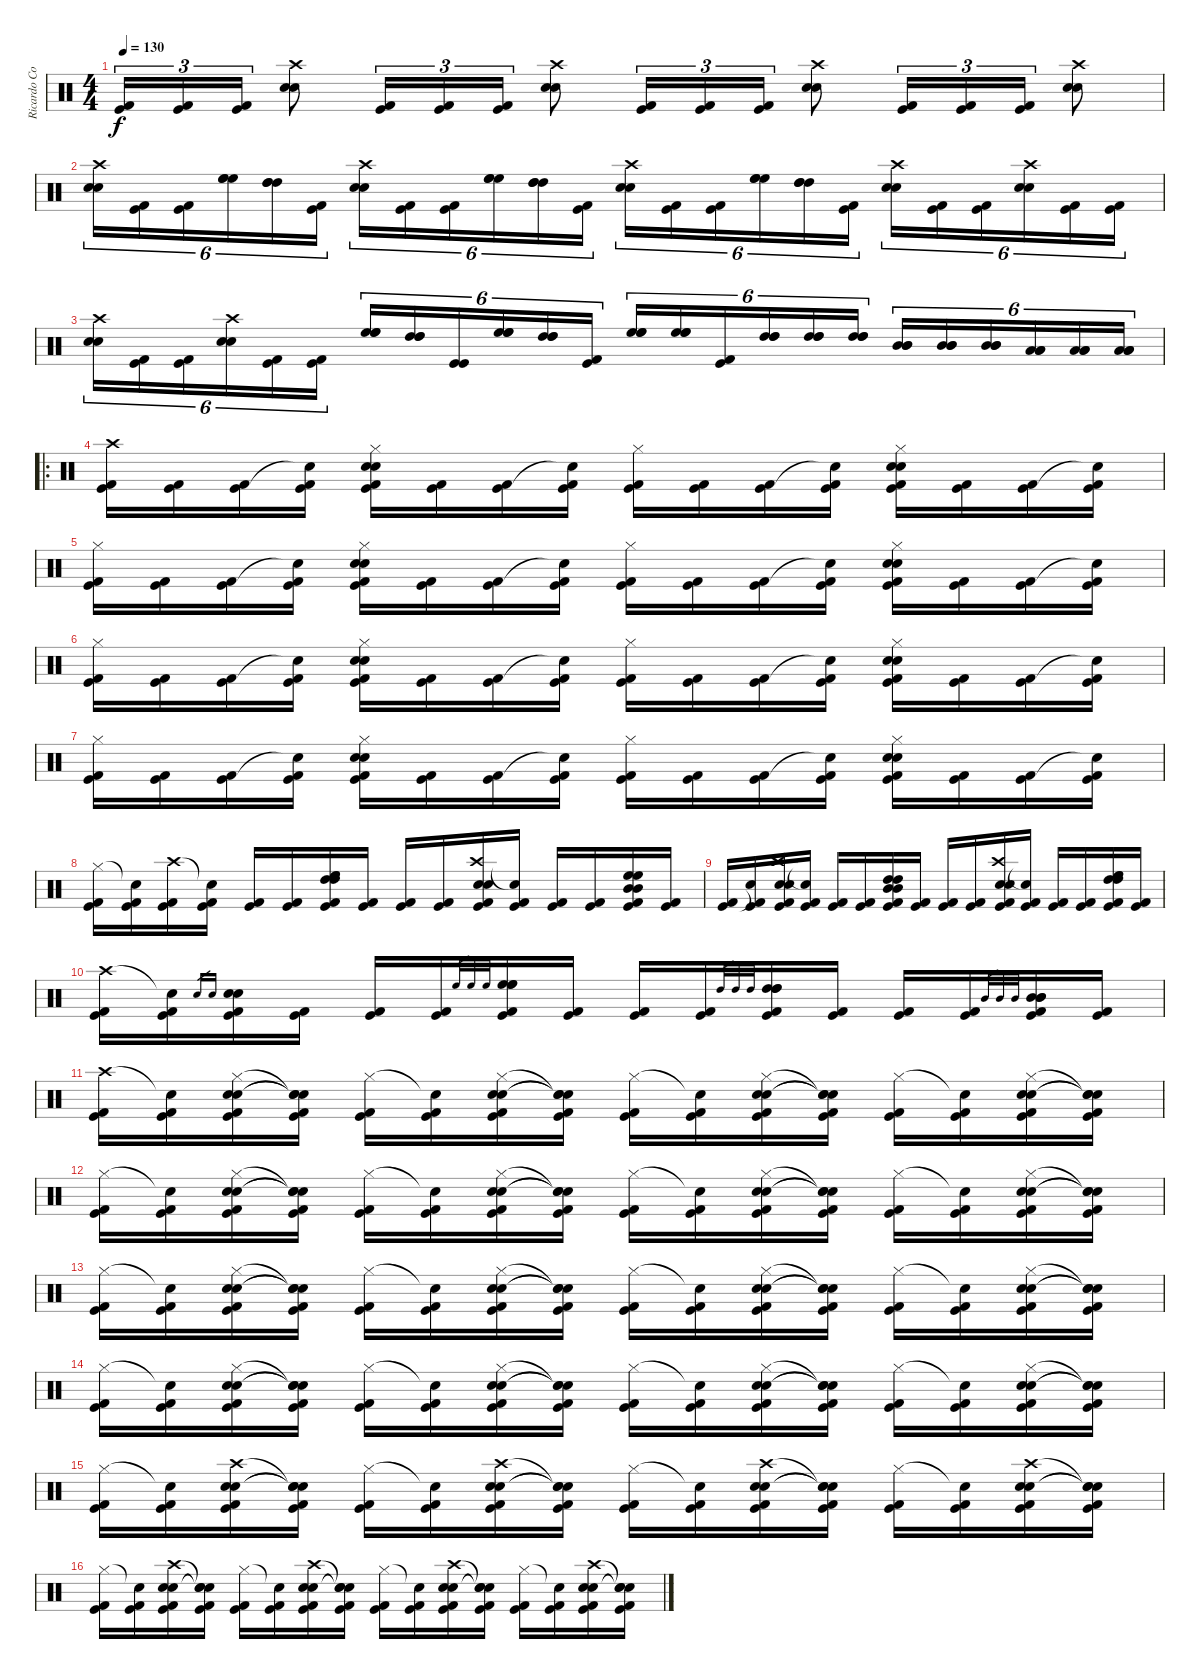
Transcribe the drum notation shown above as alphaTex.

\track ("Ricardo Confessori" "Ricardo Co") {instrument percussion}
\staff {score}
\articulation defaults
\ts (4 4)
\tempo 130
\clef neutral
\ks c
("Kick (hit) 2" "Kick (hit)").16{tu (3 2) dy f} ("Kick (hit) 2" "Kick (hit)").16{tu (3 2)} ("Kick (hit) 2" "Kick (hit)").16{tu (3 2)} ("Crash high (hit)" "Electric Snare (hit)" "Snare (hit) 2").8 ("Kick (hit)" "Kick (hit) 2").16{tu (3 2)} ("Kick (hit)" "Kick (hit) 2").16{tu (3 2)} ("Kick (hit)" "Kick (hit) 2").16{tu (3 2)} ("Crash high (hit)" "Electric Snare (hit)" "Snare (hit) 2").8 ("Kick (hit)" "Kick (hit) 2").16{tu (3 2)} ("Kick (hit)" "Kick (hit) 2").16{tu (3 2)} ("Kick (hit)" "Kick (hit) 2").16{tu (3 2)} ("Crash high (hit)" "Electric Snare (hit)" "Snare (hit) 2").8 ("Kick (hit)" "Kick (hit) 2").16{tu (3 2)} ("Kick (hit)" "Kick (hit) 2").16{tu (3 2)} ("Kick (hit)" "Kick (hit) 2").16{tu (3 2)} ("Crash high (hit)" "Electric Snare (hit)" "Snare (hit) 2").8 |
("Crash high (hit)" "Electric Snare (hit)" "Snare (hit) 2").16{tu (6 4)} ("Kick (hit)" "Kick (hit) 2").16{tu (6 4)} ("Kick (hit)" "Kick (hit) 2").16{tu (6 4)} ("High Floor Tom (hit)" "High Floor Tom (hit)" "High Floor Tom (hit)").16{tu (6 4)} ("High Tom (hit)" "High Tom (hit)" "High Tom (hit)").16{tu (6 4)} ("Kick (hit)" "Kick (hit) 2").16{tu (6 4)} ("Crash high (hit)" "Electric Snare (hit)" "Snare (hit) 2").16{tu (6 4)} ("Kick (hit)" "Kick (hit) 2").16{tu (6 4)} ("Kick (hit)" "Kick (hit) 2").16{tu (6 4)} ("High Floor Tom (hit)" "High Floor Tom (hit)" "High Floor Tom (hit)").16{tu (6 4)} ("High Tom (hit)" "High Tom (hit)" "High Tom (hit)").16{tu (6 4)} ("Kick (hit)" "Kick (hit) 2").16{tu (6 4)} ("Electric Snare (hit)" "Snare (hit) 2" "Crash high (hit)").16{tu (6 4)} ("Kick (hit)" "Kick (hit) 2").16{tu (6 4)} ("Kick (hit)" "Kick (hit) 2").16{tu (6 4)} ("High Floor Tom (hit)" "High Floor Tom (hit)" "High Floor Tom (hit)").16{tu (6 4)} ("High Tom (hit)" "High Tom (hit)" "High Tom (hit)").16{tu (6 4)} ("Kick (hit)" "Kick (hit) 2").16{tu (6 4)} ("Crash high (hit)" "Electric Snare (hit)" "Snare (hit) 2").16{tu (6 4)} ("Kick (hit)" "Kick (hit) 2").16{tu (6 4)} ("Kick (hit)" "Kick (hit) 2").16{tu (6 4)} ("Crash high (hit)" "Electric Snare (hit)" "Snare (hit) 2").16{tu (6 4)} ("Kick (hit)" "Kick (hit) 2").16{tu (6 4)} ("Kick (hit)" "Kick (hit) 2").16{tu (6 4)} |
("Crash high (hit)" "Snare (hit) 2" "Electric Snare (hit)").16{tu (6 4)} ("Kick (hit)" "Kick (hit) 2").16{tu (6 4)} ("Kick (hit)" "Kick (hit) 2").16{tu (6 4)} ("Crash high (hit)" "Electric Snare (hit)" "Snare (hit) 2").16{tu (6 4)} ("Kick (hit)" "Kick (hit) 2").16{tu (6 4)} ("Kick (hit)" "Kick (hit) 2").16{tu (6 4)} ("High Floor Tom (hit)" "High Floor Tom (hit)" "High Floor Tom (hit)").16{tu (6 4)} ("High Tom (hit)" "High Tom (hit)" "High Tom (hit)").16{tu (6 4)} ("Kick (hit)" "Kick (hit)").16{tu (6 4)} ("High Floor Tom (hit)" "High Floor Tom (hit)" "High Floor Tom (hit)").16{tu (6 4)} ("High Tom (hit)" "High Tom (hit)" "High Tom (hit)").16{tu (6 4)} ("Kick (hit)" "Kick (hit) 2").16{tu (6 4)} ("High Floor Tom (hit)" "High Floor Tom (hit)" "High Floor Tom (hit)").16{tu (6 4)} ("High Floor Tom (hit)" "High Floor Tom (hit)" "High Floor Tom (hit)").16{tu (6 4)} ("Kick (hit) 2" "Kick (hit)").16{tu (6 4)} ("High Tom (hit)" "High Tom (hit)" "High Tom (hit)").16{tu (6 4)} ("High Tom (hit)" "High Tom (hit)" "High Tom (hit)").16{tu (6 4)} ("High Tom (hit)" "High Tom (hit)" "High Tom (hit)").16{tu (6 4)} ("Mid Tom (hit)" "Mid Tom (hit)" "Mid Tom (hit)").16{tu (6 4)} ("Mid Tom (hit)" "Mid Tom (hit)" "Mid Tom (hit)").16{tu (6 4)} ("Mid Tom (hit)" "Mid Tom (hit)" "Mid Tom (hit)").16{tu (6 4)} ("Low Tom (hit)" "Low Tom (hit)" "Low Tom (hit)").16{tu (6 4)} ("Low Tom (hit)" "Low Tom (hit)" "Low Tom (hit)").16{tu (6 4)} ("Low Tom (hit)" "Low Tom (hit)" "Low Tom (hit)").16{tu (6 4)} |
\ro
("Crash high (hit)" "Kick (hit)" "Kick (hit) 2").16 ("Kick (hit)" "Kick (hit) 2").16 ("Kick (hit)" "Kick (hit) 2").16 ("Snare (hit)"{t} "Kick (hit)" "Kick (hit) 2").16 ("Hi-Hat (closed)" "Electric Snare (hit)" "Snare (hit) 2" "Kick (hit)" "Kick (hit) 2").16 ("Kick (hit)" "Kick (hit) 2").16 ("Kick (hit)" "Kick (hit) 2").16 ("Snare (hit)"{t} "Kick (hit)" "Kick (hit) 2").16 ("Hi-Hat (closed)" "Kick (hit)" "Kick (hit) 2").16 ("Kick (hit)" "Kick (hit) 2").16 ("Kick (hit)" "Kick (hit) 2").16 ("Snare (hit)"{t} "Kick (hit)" "Kick (hit) 2").16 ("Hi-Hat (closed)" "Electric Snare (hit)" "Snare (hit) 2" "Kick (hit)" "Kick (hit) 2").16 ("Kick (hit)" "Kick (hit) 2").16 ("Kick (hit)" "Kick (hit) 2").16 ("Snare (hit)"{t} "Kick (hit)" "Kick (hit) 2").16 |
("Hi-Hat (closed)" "Kick (hit)" "Kick (hit) 2").16 ("Kick (hit)" "Kick (hit) 2").16 ("Kick (hit)" "Kick (hit) 2").16 ("Snare (hit)"{t} "Kick (hit)" "Kick (hit) 2").16 ("Hi-Hat (closed)" "Electric Snare (hit)" "Snare (hit) 2" "Kick (hit)" "Kick (hit) 2").16 ("Kick (hit)" "Kick (hit) 2").16 ("Kick (hit)" "Kick (hit) 2").16 ("Snare (hit)"{t} "Kick (hit)" "Kick (hit) 2").16 ("Hi-Hat (closed)" "Kick (hit)" "Kick (hit) 2").16 ("Kick (hit)" "Kick (hit) 2").16 ("Kick (hit)" "Kick (hit) 2").16 ("Snare (hit)"{t} "Kick (hit)" "Kick (hit) 2").16 ("Hi-Hat (closed)" "Electric Snare (hit)" "Snare (hit) 2" "Kick (hit)" "Kick (hit) 2").16 ("Kick (hit)" "Kick (hit) 2").16 ("Kick (hit)" "Kick (hit) 2").16 ("Snare (hit)"{t} "Kick (hit)" "Kick (hit) 2").16 |
("Hi-Hat (closed)" "Kick (hit)" "Kick (hit) 2").16 ("Kick (hit)" "Kick (hit) 2").16 ("Kick (hit)" "Kick (hit) 2").16 ("Snare (hit)"{t} "Kick (hit)" "Kick (hit) 2").16 ("Hi-Hat (closed)" "Electric Snare (hit)" "Snare (hit) 2" "Kick (hit)" "Kick (hit) 2").16 ("Kick (hit)" "Kick (hit) 2").16 ("Kick (hit)" "Kick (hit) 2").16 ("Snare (hit)"{t} "Kick (hit)" "Kick (hit) 2").16 ("Hi-Hat (closed)" "Kick (hit)" "Kick (hit) 2").16 ("Kick (hit)" "Kick (hit) 2").16 ("Kick (hit)" "Kick (hit) 2").16 ("Snare (hit)"{t} "Kick (hit)" "Kick (hit) 2").16 ("Hi-Hat (closed)" "Electric Snare (hit)" "Snare (hit) 2" "Kick (hit)" "Kick (hit) 2").16 ("Kick (hit)" "Kick (hit) 2").16 ("Kick (hit)" "Kick (hit) 2").16 ("Snare (hit)"{t} "Kick (hit)" "Kick (hit) 2").16 |
("Hi-Hat (closed)" "Kick (hit)" "Kick (hit) 2").16 ("Kick (hit)" "Kick (hit) 2").16 ("Kick (hit)" "Kick (hit) 2").16 ("Snare (hit)"{t} "Kick (hit)" "Kick (hit) 2").16 ("Hi-Hat (closed)" "Electric Snare (hit)" "Snare (hit) 2" "Kick (hit)" "Kick (hit) 2").16 ("Kick (hit)" "Kick (hit) 2").16 ("Kick (hit)" "Kick (hit) 2").16 ("Snare (hit)"{t} "Kick (hit)" "Kick (hit) 2").16 ("Hi-Hat (closed)" "Kick (hit)" "Kick (hit) 2").16 ("Kick (hit)" "Kick (hit) 2").16 ("Kick (hit)" "Kick (hit) 2").16 ("Snare (hit)"{t} "Kick (hit)" "Kick (hit) 2").16 ("Hi-Hat (closed)" "Electric Snare (hit)" "Snare (hit) 2" "Kick (hit)" "Kick (hit) 2").16 ("Kick (hit)" "Kick (hit) 2").16 ("Kick (hit)" "Kick (hit) 2").16 ("Snare (hit)"{t} "Kick (hit)" "Kick (hit) 2").16 |
("Hi-Hat (closed)" "Kick (hit)" "Kick (hit) 2").16 ("Snare (hit)"{t} "Kick (hit)" "Kick (hit) 2").16 ("Crash high (hit)" "Kick (hit)" "Kick (hit) 2").16 ("Snare (hit)"{t} "Kick (hit)" "Kick (hit) 2").16 ("Kick (hit)" "Kick (hit) 2").16 ("Kick (hit)" "Kick (hit) 2").16 ("High Floor Tom (hit)" "High Floor Tom (hit)" "High Tom (hit)" "High Tom (hit)" "Kick (hit)" "Kick (hit) 2").16 ("Kick (hit)" "Kick (hit) 2").16 ("Kick (hit)" "Kick (hit) 2").16 ("Kick (hit)" "Kick (hit) 2").16 ("Crash high (hit)" "Electric Snare (hit)" "Snare (hit) 2" "Kick (hit)" "Kick (hit) 2").16 ("Snare (hit)"{t} "Kick (hit)" "Kick (hit) 2").16 ("Kick (hit)" "Kick (hit) 2").16 ("Kick (hit)" "Kick (hit) 2").16 ("High Floor Tom (hit)" "High Floor Tom (hit)" "Mid Tom (hit)" "Mid Tom (hit)" "Kick (hit)" "Kick (hit) 2").16 ("Kick (hit)" "Kick (hit) 2").16 |
("Kick (hit)" "Kick (hit) 2").16 ("Snare (hit)"{t} "Kick (hit)" "Kick (hit) 2").16 ("Crash high (hit)" "Electric Snare (hit)" "Snare (hit) 2" "Kick (hit)" "Kick (hit) 2").16 ("Snare (hit)"{t} "Kick (hit)" "Kick (hit) 2").16 ("Kick (hit)" "Kick (hit) 2").16 ("Kick (hit)" "Kick (hit) 2").16 ("Mid Tom (hit)" "Mid Tom (hit)" "High Tom (hit)" "High Tom (hit)" "Kick (hit)" "Kick (hit) 2").16 ("Kick (hit)" "Kick (hit) 2").16 ("Kick (hit)" "Kick (hit) 2").16 ("Kick (hit)" "Kick (hit) 2").16 ("Crash high (hit)" "Electric Snare (hit)" "Snare (hit) 2" "Kick (hit)" "Kick (hit) 2").16 ("Snare (hit)"{t} "Kick (hit)" "Kick (hit) 2").16 ("Kick (hit)" "Kick (hit) 2").16 ("Kick (hit)" "Kick (hit) 2").16 ("High Floor Tom (hit)" "High Floor Tom (hit)" "High Tom (hit)" "High Tom (hit)" "Kick (hit)" "Kick (hit) 2").16 ("Kick (hit)" "Kick (hit) 2").16 |
("Crash high (hit)" "Kick (hit)" "Kick (hit) 2").16 ("Snare (hit)"{t} "Kick (hit)" "Kick (hit) 2").16 "Electric Snare (hit)".16{gr} "Snare (hit) 2".16{gr} ("Electric Snare (hit)" "Snare (hit) 2" "Kick (hit)" "Kick (hit) 2").16 ("Kick (hit)" "Kick (hit) 2").16 ("Kick (hit)" "Kick (hit) 2").16 ("Kick (hit)" "Kick (hit) 2").16 "High Floor Tom (hit)".32{gr} "High Floor Tom (hit)".32{gr} "High Floor Tom (hit)".32{gr} ("High Floor Tom (hit)" "High Floor Tom (hit)" "High Floor Tom (hit)" "Kick (hit)" "Kick (hit) 2").16 ("Kick (hit)" "Kick (hit) 2").16 ("Kick (hit)" "Kick (hit) 2").16 ("Kick (hit)" "Kick (hit) 2").16 "High Tom (hit)".32{gr} "High Tom (hit)".32{gr} "High Tom (hit)".32{gr} ("High Tom (hit)" "High Tom (hit)" "High Tom (hit)" "Kick (hit)" "Kick (hit) 2").16 ("Kick (hit)" "Kick (hit) 2").16 ("Kick (hit)" "Kick (hit) 2").16 ("Kick (hit)" "Kick (hit) 2").16 "Mid Tom (hit)".32{gr} "Mid Tom (hit)".32{gr} "Mid Tom (hit)".32{gr} ("Mid Tom (hit)" "Mid Tom (hit)" "Mid Tom (hit)" "Kick (hit)" "Kick (hit) 2").16 ("Kick (hit)" "Kick (hit) 2").16 |
("Crash high (hit)" "Kick (hit)" "Kick (hit) 2").16 ("Snare (hit)"{t} "Kick (hit)" "Kick (hit) 2").16 ("Hi-Hat (closed)" "Electric Snare (hit)" "Snare (hit) 2" "Kick (hit)" "Kick (hit) 2").16 ("Snare (hit)"{t} "Snare (hit)"{t} "Snare (hit)"{t} "Kick (hit)" "Kick (hit) 2").16 ("Hi-Hat (closed)" "Kick (hit)" "Kick (hit) 2").16 ("Snare (hit)"{t} "Kick (hit)" "Kick (hit) 2").16 ("Hi-Hat (closed)" "Electric Snare (hit)" "Snare (hit) 2" "Kick (hit)" "Kick (hit) 2").16 ("Snare (hit)"{t} "Snare (hit)"{t} "Snare (hit)"{t} "Kick (hit)" "Kick (hit) 2").16 ("Hi-Hat (closed)" "Kick (hit)" "Kick (hit) 2").16 ("Snare (hit)"{t} "Kick (hit)" "Kick (hit) 2").16 ("Hi-Hat (closed)" "Electric Snare (hit)" "Snare (hit) 2" "Kick (hit)" "Kick (hit) 2").16 ("Snare (hit)"{t} "Snare (hit)"{t} "Snare (hit)"{t} "Kick (hit)" "Kick (hit) 2").16 ("Hi-Hat (closed)" "Kick (hit)" "Kick (hit) 2").16 ("Snare (hit)"{t} "Kick (hit)" "Kick (hit) 2").16 ("Hi-Hat (closed)" "Electric Snare (hit)" "Snare (hit) 2" "Kick (hit)" "Kick (hit) 2").16 ("Snare (hit)"{t} "Snare (hit)"{t} "Snare (hit)"{t} "Kick (hit)" "Kick (hit) 2").16 |
("Hi-Hat (closed)" "Kick (hit)" "Kick (hit) 2").16 ("Snare (hit)"{t} "Kick (hit)" "Kick (hit) 2").16 ("Hi-Hat (closed)" "Electric Snare (hit)" "Snare (hit) 2" "Kick (hit)" "Kick (hit) 2").16 ("Snare (hit)"{t} "Snare (hit)"{t} "Snare (hit)"{t} "Kick (hit)" "Kick (hit) 2").16 ("Hi-Hat (closed)" "Kick (hit)" "Kick (hit) 2").16 ("Snare (hit)"{t} "Kick (hit)" "Kick (hit) 2").16 ("Hi-Hat (closed)" "Electric Snare (hit)" "Snare (hit) 2" "Kick (hit)" "Kick (hit) 2").16 ("Snare (hit)"{t} "Snare (hit)"{t} "Snare (hit)"{t} "Kick (hit)" "Kick (hit) 2").16 ("Hi-Hat (closed)" "Kick (hit)" "Kick (hit) 2").16 ("Snare (hit)"{t} "Kick (hit)" "Kick (hit) 2").16 ("Hi-Hat (closed)" "Electric Snare (hit)" "Snare (hit) 2" "Kick (hit)" "Kick (hit) 2").16 ("Snare (hit)"{t} "Snare (hit)"{t} "Snare (hit)"{t} "Kick (hit)" "Kick (hit) 2").16 ("Hi-Hat (closed)" "Kick (hit)" "Kick (hit) 2").16 ("Snare (hit)"{t} "Kick (hit)" "Kick (hit) 2").16 ("Hi-Hat (closed)" "Electric Snare (hit)" "Snare (hit) 2" "Kick (hit)" "Kick (hit) 2").16 ("Snare (hit)"{t} "Snare (hit)"{t} "Snare (hit)"{t} "Kick (hit)" "Kick (hit) 2").16 |
("Hi-Hat (closed)" "Kick (hit)" "Kick (hit) 2").16 ("Snare (hit)"{t} "Kick (hit)" "Kick (hit) 2").16 ("Hi-Hat (closed)" "Electric Snare (hit)" "Snare (hit) 2" "Kick (hit)" "Kick (hit) 2").16 ("Snare (hit)"{t} "Snare (hit)"{t} "Snare (hit)"{t} "Kick (hit)" "Kick (hit) 2").16 ("Hi-Hat (closed)" "Kick (hit)" "Kick (hit) 2").16 ("Snare (hit)"{t} "Kick (hit)" "Kick (hit) 2").16 ("Hi-Hat (closed)" "Electric Snare (hit)" "Snare (hit) 2" "Kick (hit)" "Kick (hit) 2").16 ("Snare (hit)"{t} "Snare (hit)"{t} "Snare (hit)"{t} "Kick (hit)" "Kick (hit) 2").16 ("Hi-Hat (closed)" "Kick (hit)" "Kick (hit) 2").16 ("Snare (hit)"{t} "Kick (hit)" "Kick (hit) 2").16 ("Hi-Hat (closed)" "Electric Snare (hit)" "Snare (hit) 2" "Kick (hit)" "Kick (hit) 2").16 ("Snare (hit)"{t} "Snare (hit)"{t} "Snare (hit)"{t} "Kick (hit)" "Kick (hit) 2").16 ("Hi-Hat (closed)" "Kick (hit)" "Kick (hit) 2").16 ("Snare (hit)"{t} "Kick (hit)" "Kick (hit) 2").16 ("Hi-Hat (closed)" "Electric Snare (hit)" "Snare (hit) 2" "Kick (hit)" "Kick (hit) 2").16 ("Snare (hit)"{t} "Snare (hit)"{t} "Snare (hit)"{t} "Kick (hit)" "Kick (hit) 2").16 |
("Hi-Hat (closed)" "Kick (hit)" "Kick (hit) 2").16 ("Snare (hit)"{t} "Kick (hit)" "Kick (hit) 2").16 ("Hi-Hat (closed)" "Electric Snare (hit)" "Snare (hit) 2" "Kick (hit)" "Kick (hit) 2").16 ("Snare (hit)"{t} "Snare (hit)"{t} "Snare (hit)"{t} "Kick (hit)" "Kick (hit) 2").16 ("Hi-Hat (closed)" "Kick (hit)" "Kick (hit) 2").16 ("Snare (hit)"{t} "Kick (hit)" "Kick (hit) 2").16 ("Hi-Hat (closed)" "Electric Snare (hit)" "Snare (hit) 2" "Kick (hit)" "Kick (hit) 2").16 ("Snare (hit)"{t} "Snare (hit)"{t} "Snare (hit)"{t} "Kick (hit)" "Kick (hit) 2").16 ("Hi-Hat (closed)" "Kick (hit)" "Kick (hit) 2").16 ("Snare (hit)"{t} "Kick (hit)" "Kick (hit) 2").16 ("Hi-Hat (closed)" "Electric Snare (hit)" "Snare (hit) 2" "Kick (hit)" "Kick (hit) 2").16 ("Snare (hit)"{t} "Snare (hit)"{t} "Snare (hit)"{t} "Kick (hit)" "Kick (hit) 2").16 ("Hi-Hat (closed)" "Kick (hit)" "Kick (hit) 2").16 ("Snare (hit)"{t} "Kick (hit)" "Kick (hit) 2").16 ("Hi-Hat (closed)" "Electric Snare (hit)" "Snare (hit) 2" "Kick (hit)" "Kick (hit) 2").16 ("Snare (hit)"{t} "Snare (hit)"{t} "Snare (hit)"{t} "Kick (hit)" "Kick (hit) 2").16 |
("Hi-Hat (closed)" "Kick (hit)" "Kick (hit) 2").16 ("Snare (hit)"{t} "Kick (hit)" "Kick (hit) 2").16 ("Crash high (hit)" "Electric Snare (hit)" "Snare (hit) 2" "Kick (hit)" "Kick (hit) 2").16 ("Snare (hit)"{t} "Snare (hit)"{t} "Snare (hit)"{t} "Kick (hit)" "Kick (hit) 2").16 ("Hi-Hat (closed)" "Kick (hit)" "Kick (hit) 2").16 ("Snare (hit)"{t} "Kick (hit)" "Kick (hit) 2").16 ("Crash high (hit)" "Electric Snare (hit)" "Snare (hit) 2" "Kick (hit)" "Kick (hit) 2").16 ("Snare (hit)"{t} "Snare (hit)"{t} "Snare (hit)"{t} "Kick (hit)" "Kick (hit) 2").16 ("Hi-Hat (closed)" "Kick (hit)" "Kick (hit) 2").16 ("Snare (hit)"{t} "Kick (hit)" "Kick (hit) 2").16 ("Crash high (hit)" "Electric Snare (hit)" "Snare (hit) 2" "Kick (hit)" "Kick (hit) 2").16 ("Snare (hit)"{t} "Snare (hit)"{t} "Snare (hit)"{t} "Kick (hit)" "Kick (hit) 2").16 ("Hi-Hat (closed)" "Kick (hit)" "Kick (hit) 2").16 ("Snare (hit)"{t} "Kick (hit)" "Kick (hit) 2").16 ("Crash high (hit)" "Electric Snare (hit)" "Snare (hit) 2" "Kick (hit)" "Kick (hit) 2").16 ("Snare (hit)"{t} "Snare (hit)"{t} "Snare (hit)"{t} "Kick (hit)" "Kick (hit) 2").16 |
("Hi-Hat (closed)" "Kick (hit)" "Kick (hit) 2").16 ("Snare (hit)"{t} "Kick (hit)" "Kick (hit) 2").16 ("Crash high (hit)" "Electric Snare (hit)" "Snare (hit) 2" "Kick (hit)" "Kick (hit) 2").16 ("Snare (hit)"{t} "Snare (hit)"{t} "Snare (hit)"{t} "Kick (hit)" "Kick (hit) 2").16 ("Hi-Hat (closed)" "Kick (hit)" "Kick (hit) 2").16 ("Snare (hit)"{t} "Kick (hit)" "Kick (hit) 2").16 ("Crash high (hit)" "Electric Snare (hit)" "Snare (hit) 2" "Kick (hit)" "Kick (hit) 2").16 ("Snare (hit)"{t} "Snare (hit)"{t} "Snare (hit)"{t} "Kick (hit)" "Kick (hit) 2").16 ("Hi-Hat (closed)" "Kick (hit)" "Kick (hit) 2").16 ("Snare (hit)"{t} "Kick (hit)" "Kick (hit) 2").16 ("Crash high (hit)" "Electric Snare (hit)" "Snare (hit) 2" "Kick (hit)" "Kick (hit) 2").16 ("Snare (hit)"{t} "Snare (hit)"{t} "Snare (hit)"{t} "Kick (hit)" "Kick (hit) 2").16 ("Hi-Hat (closed)" "Kick (hit)" "Kick (hit) 2").16 ("Snare (hit)"{t} "Kick (hit)" "Kick (hit) 2").16 ("Crash high (hit)" "Electric Snare (hit)" "Snare (hit) 2" "Kick (hit)" "Kick (hit) 2").16 ("Snare (hit)"{t} "Snare (hit)"{t} "Snare (hit)"{t} "Kick (hit)" "Kick (hit) 2").16
